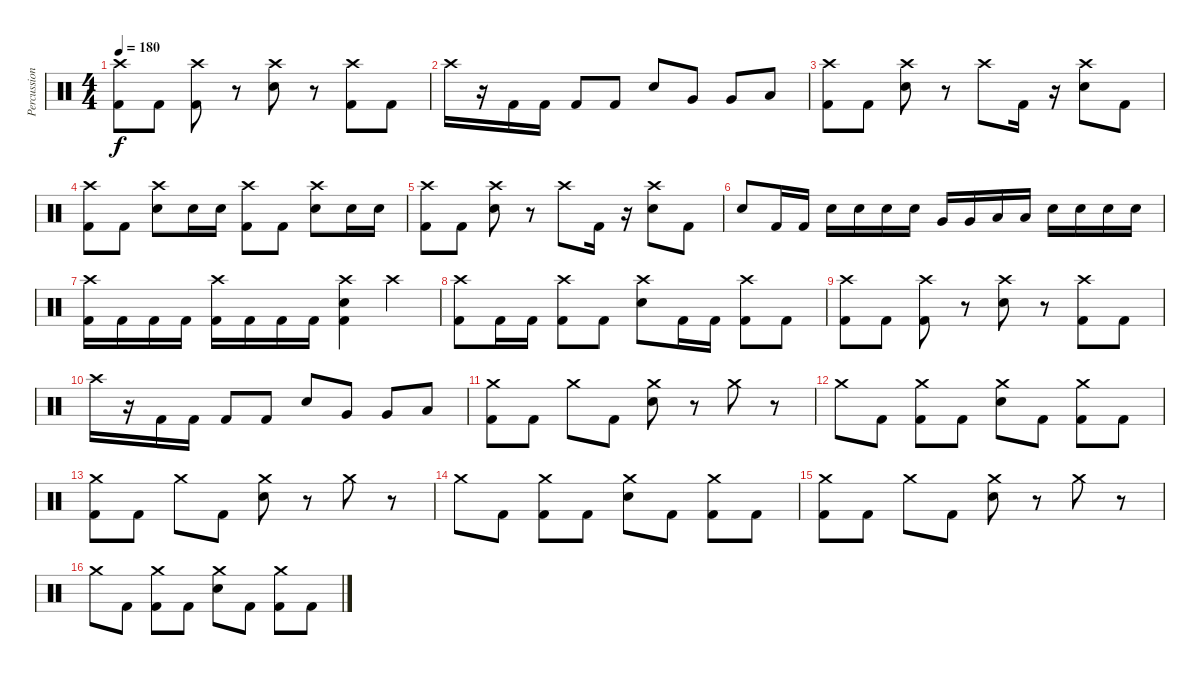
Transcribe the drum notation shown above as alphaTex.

\track ("Percussions" "Percussion") {instrument percussion}
\staff {score}
\articulation defaults
\ts (4 4)
\tempo 180
\clef neutral
\ks c
("Crash high (hit)" "Kick (hit) 2").8{dy f} "Kick (hit) 2".8 ("Crash high (hit)" "Kick (hit) 2").8 r.8 ("Crash high (hit)" "Electric Snare (hit)").8 r.8 ("Crash high (hit)" "Kick (hit) 2").8 "Kick (hit) 2".8 |
"Crash high (hit)".16 r.16 "Kick (hit) 2".16 "Kick (hit) 2".16 "Kick (hit) 2".8 "Kick (hit) 2".8 "Electric Snare (hit)".8 "Very Low Tom (hit)".8 "Very Low Tom (hit)".8 "Low Floor Tom (hit)".8 |
("Crash high (hit)" "Kick (hit) 2").8 "Kick (hit) 2".8 ("Crash high (hit)" "Electric Snare (hit)").8 r.8 "Crash high (hit)".8 "Kick (hit) 2".16 r.16 ("Crash high (hit)" "Electric Snare (hit)").8 "Kick (hit) 2".8 |
("Crash high (hit)" "Kick (hit) 2").8 "Kick (hit) 2".8 ("Crash high (hit)" "Electric Snare (hit)").8 "Electric Snare (hit)".16 "Electric Snare (hit)".16 ("Crash high (hit)" "Kick (hit) 2").8 "Kick (hit) 2".8 ("Crash high (hit)" "Electric Snare (hit)").8 "Electric Snare (hit)".16 "Electric Snare (hit)".16 |
("Crash high (hit)" "Kick (hit) 2").8 "Kick (hit) 2".8 ("Crash high (hit)" "Electric Snare (hit)").8 r.8 "Crash high (hit)".8 "Kick (hit) 2".16 r.16 ("Crash high (hit)" "Electric Snare (hit)").8 "Kick (hit) 2".8 |
"Electric Snare (hit)".8 "Kick (hit) 2".16 "Kick (hit) 2".16 "Electric Snare (hit)".16 "Electric Snare (hit)".16 "Electric Snare (hit)".16 "Electric Snare (hit)".16 "Very Low Tom (hit)".16 "Very Low Tom (hit)".16 "Low Floor Tom (hit)".16 "Low Floor Tom (hit)".16 "Electric Snare (hit)".16 "Electric Snare (hit)".16 "Electric Snare (hit)".16 "Electric Snare (hit)".16 |
("Crash high (hit)" "Kick (hit) 2").16 "Kick (hit) 2".16 "Kick (hit) 2".16 "Kick (hit) 2".16 ("Crash high (hit)" "Kick (hit) 2").16 "Kick (hit) 2".16 "Kick (hit) 2".16 "Kick (hit) 2".16 ("Crash high (hit)" "Electric Snare (hit)" "Kick (hit) 2").4 "Crash high (hit)".4 |
("Crash high (hit)" "Kick (hit) 2").8 "Kick (hit) 2".16 "Kick (hit) 2".16 ("Crash high (hit)" "Kick (hit) 2").8 "Kick (hit) 2".8 ("Crash high (hit)" "Electric Snare (hit)").8 "Kick (hit) 2".16 "Kick (hit) 2".16 ("Crash high (hit)" "Kick (hit) 2").8 "Kick (hit) 2".8 |
("Crash high (hit)" "Kick (hit) 2").8 "Kick (hit) 2".8 ("Crash high (hit)" "Kick (hit) 2").8 r.8 ("Crash high (hit)" "Electric Snare (hit)").8 r.8 ("Crash high (hit)" "Kick (hit) 2").8 "Kick (hit) 2".8 |
"Crash high (hit)".16 r.16 "Kick (hit) 2".16 "Kick (hit) 2".16 "Kick (hit) 2".8 "Kick (hit) 2".8 "Electric Snare (hit)".8 "Very Low Tom (hit)".8 "Very Low Tom (hit)".8 "Low Floor Tom (hit)".8 |
("Crash medium (hit)" "Kick (hit) 2").8 "Kick (hit) 2".8 "Crash medium (hit)".8 "Kick (hit) 2".8 ("Crash medium (hit)" "Electric Snare (hit)").8 r.8 "Crash medium (hit)".8 r.8 |
"Crash medium (hit)".8 "Kick (hit) 2".8 ("Crash medium (hit)" "Kick (hit) 2").8 "Kick (hit) 2".8 ("Crash medium (hit)" "Electric Snare (hit)").8 "Kick (hit) 2".8 ("Crash medium (hit)" "Kick (hit) 2").8 "Kick (hit) 2".8 |
("Crash medium (hit)" "Kick (hit) 2").8 "Kick (hit) 2".8 "Crash medium (hit)".8 "Kick (hit) 2".8 ("Crash medium (hit)" "Electric Snare (hit)").8 r.8 "Crash medium (hit)".8 r.8 |
"Crash medium (hit)".8 "Kick (hit) 2".8 ("Crash medium (hit)" "Kick (hit) 2").8 "Kick (hit) 2".8 ("Crash medium (hit)" "Electric Snare (hit)").8 "Kick (hit) 2".8 ("Crash medium (hit)" "Kick (hit) 2").8 "Kick (hit) 2".8 |
("Crash medium (hit)" "Kick (hit) 2").8 "Kick (hit) 2".8 "Crash medium (hit)".8 "Kick (hit) 2".8 ("Crash medium (hit)" "Electric Snare (hit)").8 r.8 "Crash medium (hit)".8 r.8 |
"Crash medium (hit)".8 "Kick (hit) 2".8 ("Crash medium (hit)" "Kick (hit) 2").8 "Kick (hit) 2".8 ("Crash medium (hit)" "Electric Snare (hit)").8 "Kick (hit) 2".8 ("Crash medium (hit)" "Kick (hit) 2").8 "Kick (hit) 2".8
